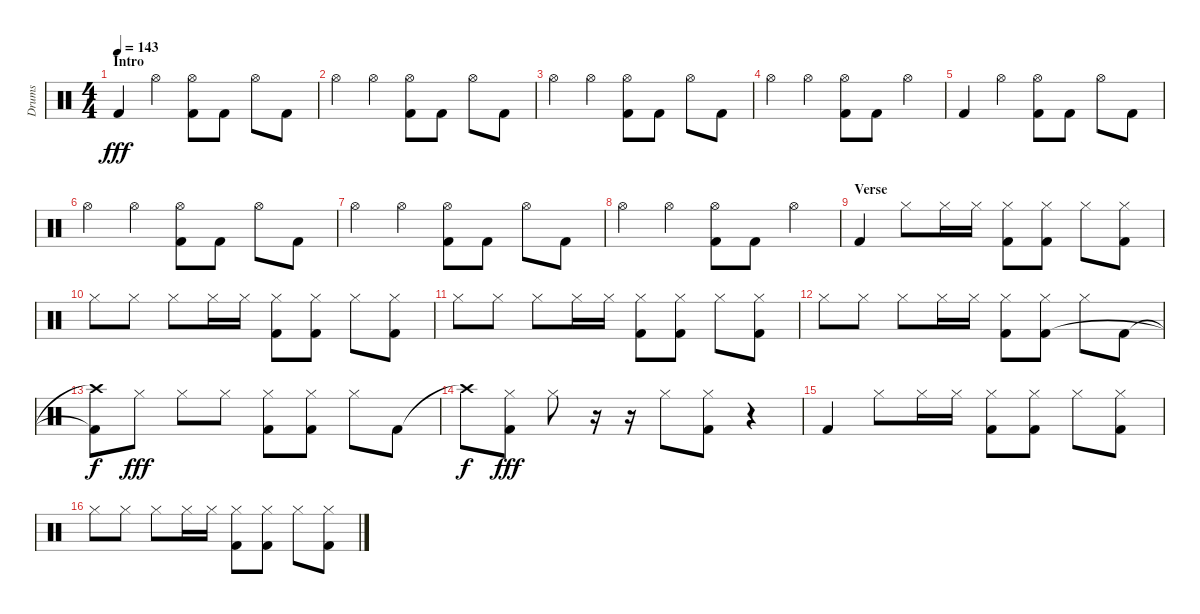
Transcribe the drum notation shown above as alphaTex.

\track ("Drums" "Drums") {instrument percussion}
\staff {score}
\articulation defaults
\ts (4 4)
\section ("" "Intro")
\tempo 143
\clef neutral
\ks c "Kick (hit) 2".4{dy fff} "Hi-Hat (open)".4
("Hi-Hat (open)" "Kick (hit) 2").8 "Kick (hit) 2".8 "Hi-Hat (open)".8 "Kick (hit) 2".8 |
"Hi-Hat (open)".4 "Hi-Hat (open)".4 ("Hi-Hat (open)" "Kick (hit) 2").8 "Kick (hit) 2".8 "Hi-Hat (open)".8 "Kick (hit) 2".8 |
"Hi-Hat (open)".4 "Hi-Hat (open)".4 ("Hi-Hat (open)" "Kick (hit) 2").8 "Kick (hit) 2".8 "Hi-Hat (open)".8 "Kick (hit) 2".8 |
"Hi-Hat (open)".4 "Hi-Hat (open)".4 ("Hi-Hat (open)" "Kick (hit) 2").8 "Kick (hit) 2".8 "Hi-Hat (open)".4 |
"Kick (hit) 2".4 "Hi-Hat (open)".4 ("Hi-Hat (open)" "Kick (hit) 2").8 "Kick (hit) 2".8 "Hi-Hat (open)".8 "Kick (hit) 2".8 |
"Hi-Hat (open)".4 "Hi-Hat (open)".4 ("Hi-Hat (open)" "Kick (hit) 2").8 "Kick (hit) 2".8 "Hi-Hat (open)".8 "Kick (hit) 2".8 |
"Hi-Hat (open)".4 "Hi-Hat (open)".4 ("Hi-Hat (open)" "Kick (hit) 2").8 "Kick (hit) 2".8 "Hi-Hat (open)".8 "Kick (hit) 2".8 |
"Hi-Hat (open)".4 "Hi-Hat (open)".4 ("Hi-Hat (open)" "Kick (hit) 2").8 "Kick (hit) 2".8 "Hi-Hat (open)".4 |
\section ("" "Verse")
"Kick (hit) 2".4 "Hi-Hat (closed)".8 "Hi-Hat (closed)".16 "Hi-Hat (closed)".16 ("Hi-Hat (closed)" "Kick (hit) 2").8 ("Hi-Hat (closed)" "Kick (hit) 2").8 "Hi-Hat (closed)".8 ("Hi-Hat (closed)" "Kick (hit) 2").8 |
"Hi-Hat (closed)".8 "Hi-Hat (closed)".8 "Hi-Hat (closed)".8 "Hi-Hat (closed)".16 "Hi-Hat (closed)".16 ("Hi-Hat (closed)" "Kick (hit) 2").8 ("Hi-Hat (closed)" "Kick (hit) 2").8 "Hi-Hat (closed)".8 ("Hi-Hat (closed)" "Kick (hit) 2").8 |
"Hi-Hat (closed)".8 "Hi-Hat (closed)".8 "Hi-Hat (closed)".8 "Hi-Hat (closed)".16 "Hi-Hat (closed)".16 ("Hi-Hat (closed)" "Kick (hit) 2").8 ("Hi-Hat (closed)" "Kick (hit) 2").8 "Hi-Hat (closed)".8 ("Hi-Hat (closed)" "Kick (hit) 2").8 |
"Hi-Hat (closed)".8 "Hi-Hat (closed)".8 "Hi-Hat (closed)".8 "Hi-Hat (closed)".16 "Hi-Hat (closed)".16 ("Hi-Hat (closed)" "Kick (hit) 2").8 ("Hi-Hat (closed)" "Kick (hit) 2").8 "Hi-Hat (closed)".8 "Kick (hit) 2".8 |
("Crash high (hit)"{t} "Kick (hit) 2"{t}).8{dy f} "Hi-Hat (closed)".8{dy fff} "Hi-Hat (closed)".8 "Hi-Hat (closed)".8 ("Hi-Hat (closed)" "Kick (hit) 2").8 ("Hi-Hat (closed)" "Kick (hit) 2").8 "Hi-Hat (closed)".8 "Kick (hit) 2".8 |
"Crash high (hit)"{t}.8{dy f} ("Hi-Hat (closed)" "Kick (hit) 2").8{dy fff} "Hi-Hat (closed)".8 r.16 r.16 "Hi-Hat (closed)".8 ("Hi-Hat (closed)" "Kick (hit) 2").8 r.4 |
"Kick (hit) 2".4 "Hi-Hat (closed)".8 "Hi-Hat (closed)".16 "Hi-Hat (closed)".16 ("Hi-Hat (closed)" "Kick (hit) 2").8 ("Hi-Hat (closed)" "Kick (hit) 2").8 "Hi-Hat (closed)".8 ("Hi-Hat (closed)" "Kick (hit) 2").8 |
"Hi-Hat (closed)".8 "Hi-Hat (closed)".8 "Hi-Hat (closed)".8 "Hi-Hat (closed)".16 "Hi-Hat (closed)".16 ("Hi-Hat (closed)" "Kick (hit) 2").8 ("Hi-Hat (closed)" "Kick (hit) 2").8 "Hi-Hat (closed)".8 ("Hi-Hat (closed)" "Kick (hit) 2").8
